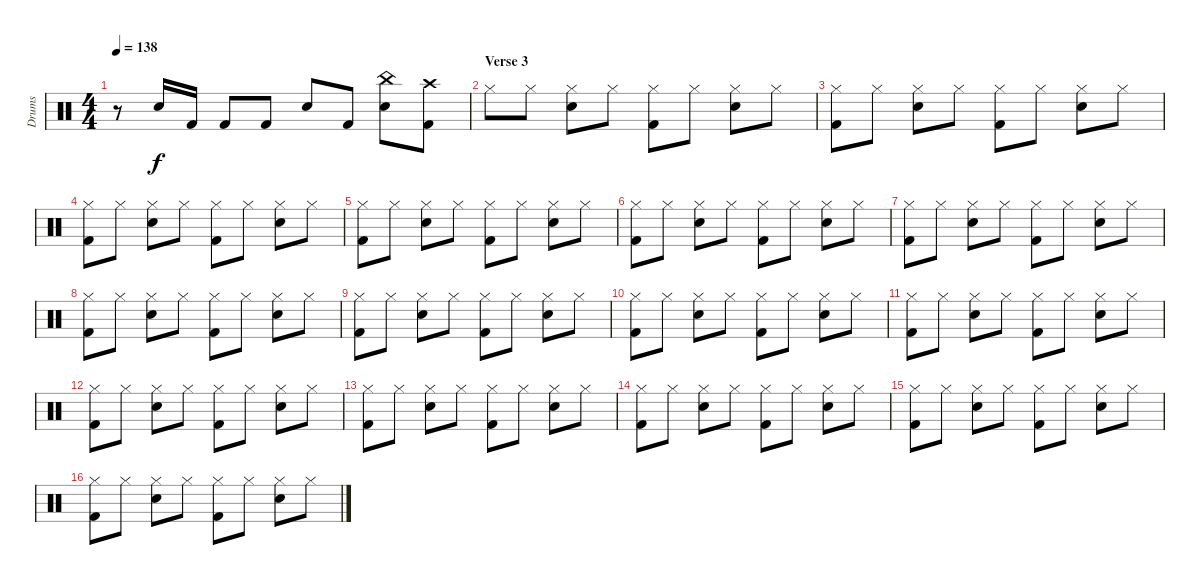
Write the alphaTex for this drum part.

\track ("Drums" "Drums") {instrument percussion}
\staff {score}
\articulation defaults
\ts (4 4)
\tempo 138
\clef neutral
\ks c
r.8{dy f} "Snare (hit) 2".16 "Kick (hit) 2".16 "Kick (hit) 2".8 "Kick (hit) 2".8 "Snare (hit) 2".8 "Kick (hit) 2".8 ("China (hit)" "Snare (hit) 2").8 ("Crash high (hit)" "Kick (hit) 2").8 |
\section ("" "Verse 3")
"Hi-Hat (closed)".8 "Hi-Hat (closed)".8 ("Hi-Hat (closed)" "Snare (hit) 2").8 "Hi-Hat (closed)".8 ("Hi-Hat (closed)" "Kick (hit) 2").8 "Hi-Hat (closed)".8 ("Hi-Hat (closed)" "Snare (hit) 2").8 "Hi-Hat (closed)".8 |
("Hi-Hat (closed)" "Kick (hit) 2").8 "Hi-Hat (closed)".8 ("Hi-Hat (closed)" "Snare (hit) 2").8 "Hi-Hat (closed)".8 ("Hi-Hat (closed)" "Kick (hit) 2").8 "Hi-Hat (closed)".8 ("Hi-Hat (closed)" "Snare (hit) 2").8 "Hi-Hat (closed)".8 |
("Hi-Hat (closed)" "Kick (hit) 2").8 "Hi-Hat (closed)".8 ("Hi-Hat (closed)" "Snare (hit) 2").8 "Hi-Hat (closed)".8 ("Hi-Hat (closed)" "Kick (hit) 2").8 "Hi-Hat (closed)".8 ("Hi-Hat (closed)" "Snare (hit) 2").8 "Hi-Hat (closed)".8 |
("Hi-Hat (closed)" "Kick (hit) 2").8 "Hi-Hat (closed)".8 ("Hi-Hat (closed)" "Snare (hit) 2").8 "Hi-Hat (closed)".8 ("Hi-Hat (closed)" "Kick (hit) 2").8 "Hi-Hat (closed)".8 ("Hi-Hat (closed)" "Snare (hit) 2").8 "Hi-Hat (closed)".8 |
("Hi-Hat (closed)" "Kick (hit) 2").8 "Hi-Hat (closed)".8 ("Hi-Hat (closed)" "Snare (hit) 2").8 "Hi-Hat (closed)".8 ("Hi-Hat (closed)" "Kick (hit) 2").8 "Hi-Hat (closed)".8 ("Hi-Hat (closed)" "Snare (hit) 2").8 "Hi-Hat (closed)".8 |
("Hi-Hat (closed)" "Kick (hit) 2").8 "Hi-Hat (closed)".8 ("Hi-Hat (closed)" "Snare (hit) 2").8 "Hi-Hat (closed)".8 ("Hi-Hat (closed)" "Kick (hit) 2").8 "Hi-Hat (closed)".8 ("Hi-Hat (closed)" "Snare (hit) 2").8 "Hi-Hat (closed)".8 |
("Hi-Hat (closed)" "Kick (hit) 2").8 "Hi-Hat (closed)".8 ("Hi-Hat (closed)" "Snare (hit) 2").8 "Hi-Hat (closed)".8 ("Hi-Hat (closed)" "Kick (hit) 2").8 "Hi-Hat (closed)".8 ("Hi-Hat (closed)" "Snare (hit) 2").8 "Hi-Hat (closed)".8 |
("Hi-Hat (closed)" "Kick (hit) 2").8 "Hi-Hat (closed)".8 ("Hi-Hat (closed)" "Snare (hit) 2").8 "Hi-Hat (closed)".8 ("Hi-Hat (closed)" "Kick (hit) 2").8 "Hi-Hat (closed)".8 ("Hi-Hat (closed)" "Snare (hit) 2").8 "Hi-Hat (closed)".8 |
("Hi-Hat (closed)" "Kick (hit) 2").8 "Hi-Hat (closed)".8 ("Hi-Hat (closed)" "Snare (hit) 2").8 "Hi-Hat (closed)".8 ("Hi-Hat (closed)" "Kick (hit) 2").8 "Hi-Hat (closed)".8 ("Hi-Hat (closed)" "Snare (hit) 2").8 "Hi-Hat (closed)".8 |
("Hi-Hat (closed)" "Kick (hit) 2").8 "Hi-Hat (closed)".8 ("Hi-Hat (closed)" "Snare (hit) 2").8 "Hi-Hat (closed)".8 ("Hi-Hat (closed)" "Kick (hit) 2").8 "Hi-Hat (closed)".8 ("Hi-Hat (closed)" "Snare (hit) 2").8 "Hi-Hat (closed)".8 |
("Hi-Hat (closed)" "Kick (hit) 2").8 "Hi-Hat (closed)".8 ("Hi-Hat (closed)" "Snare (hit) 2").8 "Hi-Hat (closed)".8 ("Hi-Hat (closed)" "Kick (hit) 2").8 "Hi-Hat (closed)".8 ("Hi-Hat (closed)" "Snare (hit) 2").8 "Hi-Hat (closed)".8 |
("Hi-Hat (closed)" "Kick (hit) 2").8 "Hi-Hat (closed)".8 ("Hi-Hat (closed)" "Snare (hit) 2").8 "Hi-Hat (closed)".8 ("Hi-Hat (closed)" "Kick (hit) 2").8 "Hi-Hat (closed)".8 ("Hi-Hat (closed)" "Snare (hit) 2").8 "Hi-Hat (closed)".8 |
("Hi-Hat (closed)" "Kick (hit) 2").8 "Hi-Hat (closed)".8 ("Hi-Hat (closed)" "Snare (hit) 2").8 "Hi-Hat (closed)".8 ("Hi-Hat (closed)" "Kick (hit) 2").8 "Hi-Hat (closed)".8 ("Hi-Hat (closed)" "Snare (hit) 2").8 "Hi-Hat (closed)".8 |
("Hi-Hat (closed)" "Kick (hit) 2").8 "Hi-Hat (closed)".8 ("Hi-Hat (closed)" "Snare (hit) 2").8 "Hi-Hat (closed)".8 ("Hi-Hat (closed)" "Kick (hit) 2").8 "Hi-Hat (closed)".8 ("Hi-Hat (closed)" "Snare (hit) 2").8 "Hi-Hat (closed)".8 |
("Hi-Hat (closed)" "Kick (hit) 2").8 "Hi-Hat (closed)".8 ("Hi-Hat (closed)" "Snare (hit) 2").8 "Hi-Hat (closed)".8 ("Hi-Hat (closed)" "Kick (hit) 2").8 "Hi-Hat (closed)".8 ("Hi-Hat (closed)" "Snare (hit) 2").8 "Hi-Hat (closed)".8
